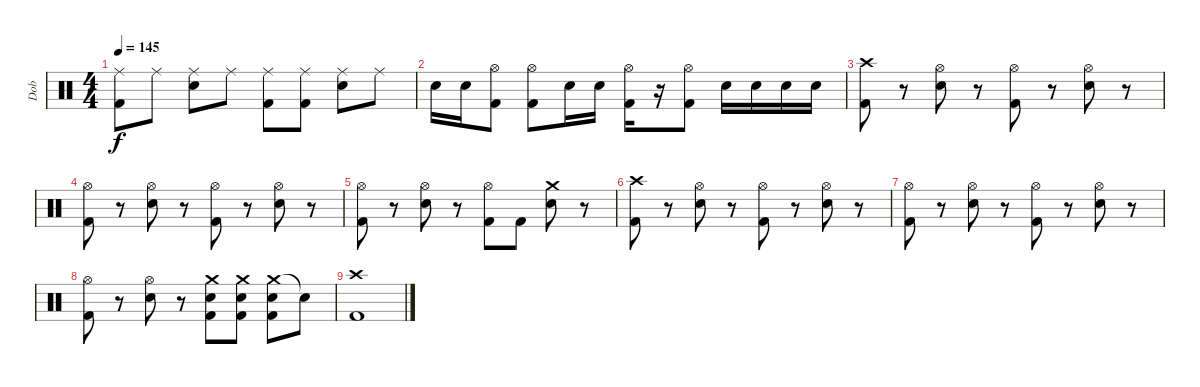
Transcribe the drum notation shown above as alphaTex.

\track ("Dob" "Dob") {instrument percussion}
\staff {score}
\articulation defaults
\ts (4 4)
\tempo 145
\clef neutral
\ks c
("Ride (middle)" "Kick (hit) 2").8{dy f} "Ride (middle)".8 ("Ride (middle)" "Electric Snare (hit)").8 "Ride (middle)".8 ("Ride (middle)" "Kick (hit) 2").8 ("Ride (middle)" "Kick (hit) 2").8 ("Ride (middle)" "Electric Snare (hit)").8 "Ride (middle)".8 |
"Electric Snare (hit)".16 "Electric Snare (hit)".16 ("Hi-Hat (open)" "Kick (hit) 2").8 ("Hi-Hat (open)" "Kick (hit) 2").8 "Electric Snare (hit)".16 "Electric Snare (hit)".16 ("Hi-Hat (open)" "Kick (hit) 2").16 r.16 ("Hi-Hat (open)" "Kick (hit) 2").8 "Electric Snare (hit)".16 "Electric Snare (hit)".16 "Electric Snare (hit)".16 "Electric Snare (hit)".16 |
("Crash high (hit)" "Kick (hit) 2").8 r.8 ("Hi-Hat (open)" "Electric Snare (hit)").8 r.8 ("Hi-Hat (open)" "Kick (hit) 2").8 r.8 ("Hi-Hat (open)" "Electric Snare (hit)").8 r.8 |
("Hi-Hat (open)" "Kick (hit) 2").8 r.8 ("Hi-Hat (open)" "Electric Snare (hit)").8 r.8 ("Hi-Hat (open)" "Kick (hit) 2").8 r.8 ("Hi-Hat (open)" "Electric Snare (hit)").8 r.8 |
("Hi-Hat (open)" "Kick (hit) 2").8 r.8 ("Hi-Hat (open)" "Electric Snare (hit)").8 r.8 ("Hi-Hat (open)" "Kick (hit) 2").8 "Kick (hit) 2".8 ("Crash medium (hit)" "Electric Snare (hit)").8 r.8 |
("Crash high (hit)" "Kick (hit) 2").8 r.8 ("Hi-Hat (open)" "Electric Snare (hit)").8 r.8 ("Hi-Hat (open)" "Kick (hit) 2").8 r.8 ("Hi-Hat (open)" "Electric Snare (hit)").8 r.8 |
("Hi-Hat (open)" "Kick (hit) 2").8 r.8 ("Hi-Hat (open)" "Electric Snare (hit)").8 r.8 ("Hi-Hat (open)" "Kick (hit) 2").8 r.8 ("Hi-Hat (open)" "Electric Snare (hit)").8 r.8 |
("Hi-Hat (open)" "Kick (hit) 2").8 r.8 ("Hi-Hat (open)" "Electric Snare (hit)").8 r.8 ("Crash medium (hit)" "Electric Snare (hit)" "Kick (hit) 2").8 ("Crash medium (hit)" "Electric Snare (hit)" "Kick (hit) 2").8 ("Crash medium (hit)" "Electric Snare (hit)" "Kick (hit) 2").8 "Snare (hit)"{t}.8 |
("Crash high (hit)" "Kick (hit) 2").1
